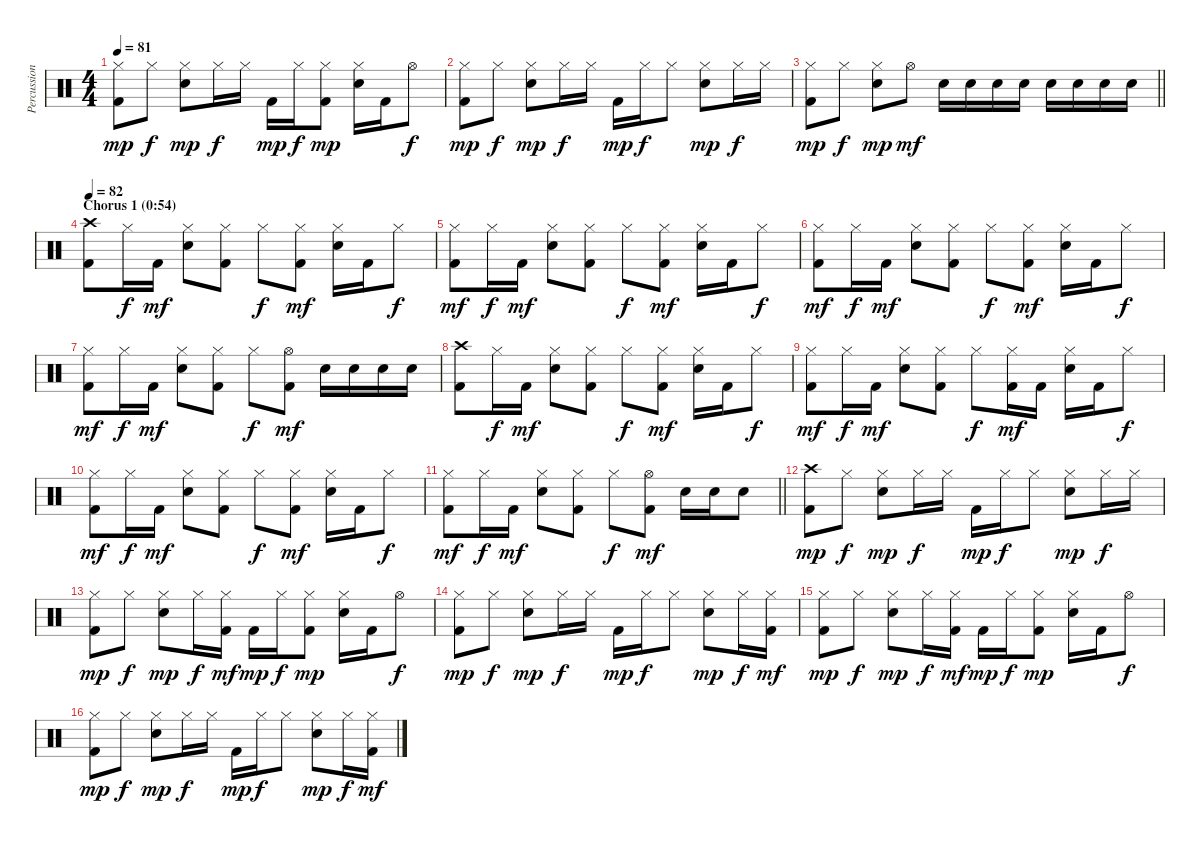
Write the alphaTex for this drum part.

\track ("Percussion" "Percussion") {instrument percussion}
\staff {score}
\articulation defaults
\ts (4 4)
\tempo 81
\clef neutral
\ks c
("Hi-Hat (closed)" "Kick (hit) 2").8{dy mp} "Hi-Hat (closed)".8{dy f} ("Hi-Hat (closed)" "Electric Snare (hit)").8{dy mp} "Hi-Hat (closed)".16{dy f} "Hi-Hat (closed)".16 "Kick (hit) 2".16{dy mp} "Hi-Hat (closed)".16{dy f} ("Hi-Hat (closed)" "Kick (hit) 2").8{dy mp} ("Hi-Hat (closed)" "Electric Snare (hit)").16 "Kick (hit) 2".16 "Hi-Hat (open)".8{dy f} |
("Hi-Hat (closed)" "Kick (hit) 2").8{dy mp} "Hi-Hat (closed)".8{dy f} ("Hi-Hat (closed)" "Electric Snare (hit)").8{dy mp} "Hi-Hat (closed)".16{dy f} "Hi-Hat (closed)".16 "Kick (hit) 2".16{dy mp} "Hi-Hat (closed)".16{dy f} "Hi-Hat (closed)".8 ("Hi-Hat (closed)" "Electric Snare (hit)").8{dy mp} "Hi-Hat (closed)".16{dy f} "Hi-Hat (closed)".16 |
\barLineRight lightlight
("Hi-Hat (closed)" "Kick (hit) 2").8{dy mp} "Hi-Hat (closed)".8{dy f} ("Hi-Hat (closed)" "Electric Snare (hit)").8{dy mp} "Hi-Hat (open)".8{dy mf} "Electric Snare (hit)".16 "Electric Snare (hit)".16 "Electric Snare (hit)".16 "Electric Snare (hit)".16 "Snare (hit) 2".16 "Snare (hit) 2".16 "Snare (hit) 2".16 "Snare (hit) 2".16 |
\section ("" "Chorus 1 (0:54)")
\tempo 82
("Crash high (hit)" "Kick (hit) 2").8 "Hi-Hat (closed)".16{dy f} "Kick (hit) 2".16{dy mf} ("Hi-Hat (closed)" "Electric Snare (hit)").8 ("Hi-Hat (closed)" "Kick (hit) 2").8 "Hi-Hat (closed)".8{dy f} ("Hi-Hat (closed)" "Kick (hit) 2").8{dy mf} ("Hi-Hat (closed)" "Electric Snare (hit)").16 "Kick (hit) 2".16 "Hi-Hat (closed)".8{dy f} |
("Hi-Hat (closed)" "Kick (hit) 2").8{dy mf} "Hi-Hat (closed)".16{dy f} "Kick (hit) 2".16{dy mf} ("Hi-Hat (closed)" "Electric Snare (hit)").8 ("Hi-Hat (closed)" "Kick (hit) 2").8 "Hi-Hat (closed)".8{dy f} ("Hi-Hat (closed)" "Kick (hit) 2").8{dy mf} ("Hi-Hat (closed)" "Electric Snare (hit)").16 "Kick (hit) 2".16 "Hi-Hat (closed)".8{dy f} |
("Hi-Hat (closed)" "Kick (hit) 2").8{dy mf} "Hi-Hat (closed)".16{dy f} "Kick (hit) 2".16{dy mf} ("Hi-Hat (closed)" "Electric Snare (hit)").8 ("Hi-Hat (closed)" "Kick (hit) 2").8 "Hi-Hat (closed)".8{dy f} ("Hi-Hat (closed)" "Kick (hit) 2").8{dy mf} ("Hi-Hat (closed)" "Electric Snare (hit)").16 "Kick (hit) 2".16 "Hi-Hat (closed)".8{dy f} |
("Hi-Hat (closed)" "Kick (hit) 2").8{dy mf} "Hi-Hat (closed)".16{dy f} "Kick (hit) 2".16{dy mf} ("Hi-Hat (closed)" "Electric Snare (hit)").8 ("Hi-Hat (closed)" "Kick (hit) 2").8 "Hi-Hat (closed)".8{dy f} ("Hi-Hat (open)" "Kick (hit) 2").8{dy mf} "Electric Snare (hit)".16 "Electric Snare (hit)".16 "Snare (hit) 2".16 "Snare (hit) 2".16 |
("Crash high (hit)" "Kick (hit) 2").8 "Hi-Hat (closed)".16{dy f} "Kick (hit) 2".16{dy mf} ("Hi-Hat (closed)" "Electric Snare (hit)").8 ("Hi-Hat (closed)" "Kick (hit) 2").8 "Hi-Hat (closed)".8{dy f} ("Hi-Hat (closed)" "Kick (hit) 2").8{dy mf} ("Hi-Hat (closed)" "Electric Snare (hit)").16 "Kick (hit) 2".16 "Hi-Hat (closed)".8{dy f} |
("Hi-Hat (closed)" "Kick (hit) 2").8{dy mf} "Hi-Hat (closed)".16{dy f} "Kick (hit) 2".16{dy mf} ("Hi-Hat (closed)" "Electric Snare (hit)").8 ("Hi-Hat (closed)" "Kick (hit) 2").8 "Hi-Hat (closed)".8{dy f} ("Hi-Hat (closed)" "Kick (hit) 2").16{dy mf} "Kick (hit) 2".16 ("Hi-Hat (closed)" "Electric Snare (hit)").16 "Kick (hit) 2".16 "Hi-Hat (closed)".8{dy f} |
("Hi-Hat (closed)" "Kick (hit) 2").8{dy mf} "Hi-Hat (closed)".16{dy f} "Kick (hit) 2".16{dy mf} ("Hi-Hat (closed)" "Electric Snare (hit)").8 ("Hi-Hat (closed)" "Kick (hit) 2").8 "Hi-Hat (closed)".8{dy f} ("Hi-Hat (closed)" "Kick (hit) 2").8{dy mf} ("Hi-Hat (closed)" "Electric Snare (hit)").16 "Kick (hit) 2".16 "Hi-Hat (closed)".8{dy f} |
\barLineRight lightlight
("Hi-Hat (closed)" "Kick (hit) 2").8{dy mf} "Hi-Hat (closed)".16{dy f} "Kick (hit) 2".16{dy mf} ("Hi-Hat (closed)" "Electric Snare (hit)").8 ("Hi-Hat (closed)" "Kick (hit) 2").8 "Hi-Hat (closed)".8{dy f} ("Hi-Hat (open)" "Kick (hit) 2").8{dy mf} "Electric Snare (hit)".16 "Electric Snare (hit)".16 "Snare (hit) 2".8 |
("Crash high (hit)" "Kick (hit) 2").8{dy mp} "Hi-Hat (closed)".8{dy f} ("Hi-Hat (closed)" "Electric Snare (hit)").8{dy mp} "Hi-Hat (closed)".16{dy f} "Hi-Hat (closed)".16 "Kick (hit) 2".16{dy mp} "Hi-Hat (closed)".16{dy f} "Hi-Hat (closed)".8 ("Hi-Hat (closed)" "Electric Snare (hit)").8{dy mp} "Hi-Hat (closed)".16{dy f} "Hi-Hat (closed)".16 |
("Hi-Hat (closed)" "Kick (hit) 2").8{dy mp} "Hi-Hat (closed)".8{dy f} ("Hi-Hat (closed)" "Electric Snare (hit)").8{dy mp} "Hi-Hat (closed)".16{dy f} ("Hi-Hat (closed)" "Kick (hit) 2").16{dy mf} "Kick (hit) 2".16{dy mp} "Hi-Hat (closed)".16{dy f} ("Hi-Hat (closed)" "Kick (hit) 2").8{dy mp} ("Hi-Hat (closed)" "Electric Snare (hit)").16 "Kick (hit) 2".16 "Hi-Hat (open)".8{dy f} |
("Hi-Hat (closed)" "Kick (hit) 2").8{dy mp} "Hi-Hat (closed)".8{dy f} ("Hi-Hat (closed)" "Electric Snare (hit)").8{dy mp} "Hi-Hat (closed)".16{dy f} "Hi-Hat (closed)".16 "Kick (hit) 2".16{dy mp} "Hi-Hat (closed)".16{dy f} "Hi-Hat (closed)".8 ("Hi-Hat (closed)" "Electric Snare (hit)").8{dy mp} "Hi-Hat (closed)".16{dy f} ("Hi-Hat (closed)" "Kick (hit) 2").16{dy mf} |
("Hi-Hat (closed)" "Kick (hit) 2").8{dy mp} "Hi-Hat (closed)".8{dy f} ("Hi-Hat (closed)" "Electric Snare (hit)").8{dy mp} "Hi-Hat (closed)".16{dy f} ("Hi-Hat (closed)" "Kick (hit) 2").16{dy mf} "Kick (hit) 2".16{dy mp} "Hi-Hat (closed)".16{dy f} ("Hi-Hat (closed)" "Kick (hit) 2").8{dy mp} ("Hi-Hat (closed)" "Electric Snare (hit)").16 "Kick (hit) 2".16 "Hi-Hat (open)".8{dy f} |
("Hi-Hat (closed)" "Kick (hit) 2").8{dy mp} "Hi-Hat (closed)".8{dy f} ("Hi-Hat (closed)" "Electric Snare (hit)").8{dy mp} "Hi-Hat (closed)".16{dy f} "Hi-Hat (closed)".16 "Kick (hit) 2".16{dy mp} "Hi-Hat (closed)".16{dy f} "Hi-Hat (closed)".8 ("Hi-Hat (closed)" "Electric Snare (hit)").8{dy mp} "Hi-Hat (closed)".16{dy f} ("Hi-Hat (closed)" "Kick (hit) 2").16{dy mf}
